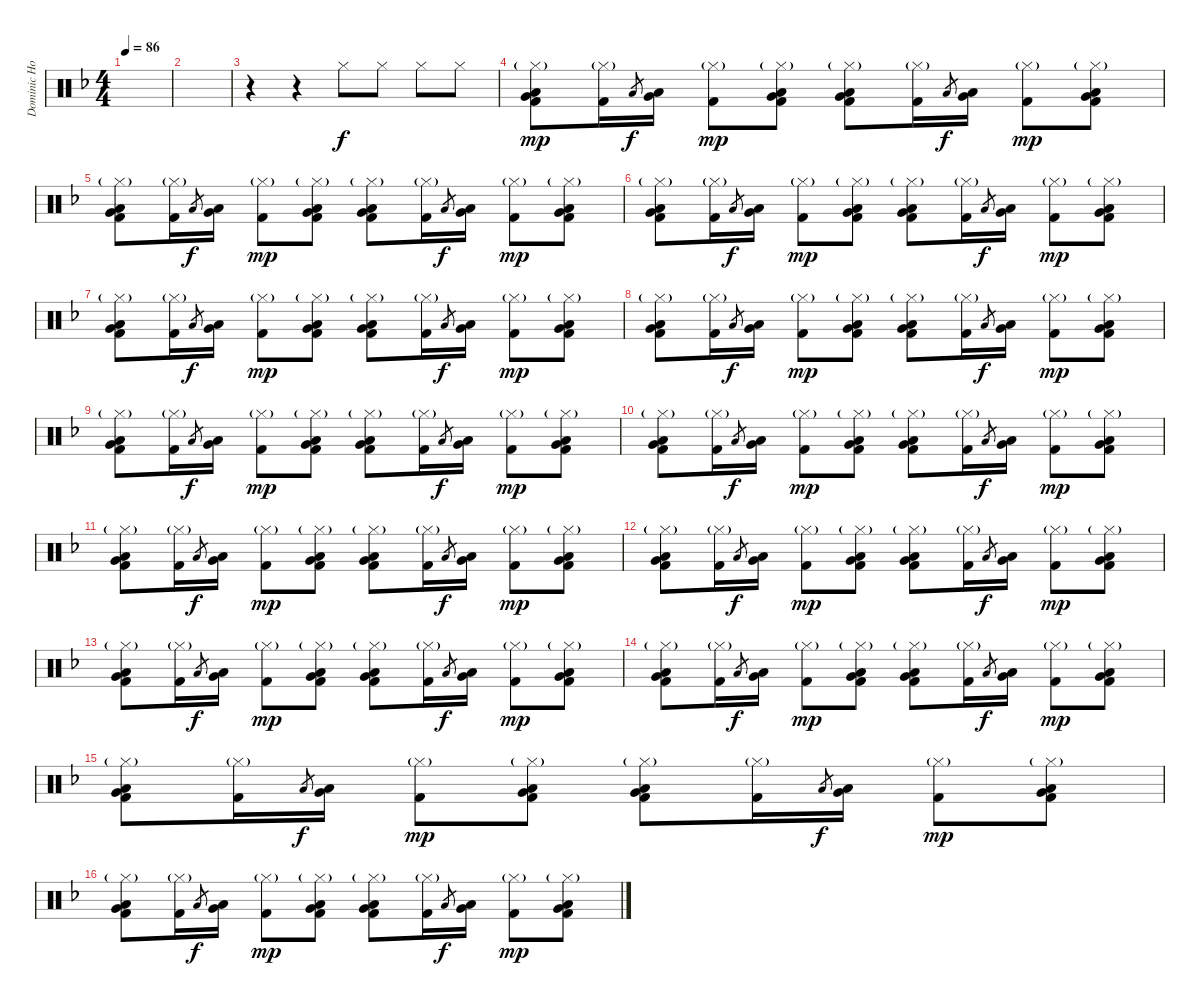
\track ("Dominic Howard" "Dominic Ho") {instrument percussion}
\staff {score}
\articulation defaults
\ts (4 4)
\tempo 86
\clef neutral
\ks f
|
|
r.4 r.4 "Hi-Hat (closed)".8 "Hi-Hat (closed)".8 "Hi-Hat (closed)".8 "Hi-Hat (closed)".8 |
("Hi-Hat (closed)"{g} "Very Low Tom (hit)" "Low Floor Tom (hit)" "Kick (hit) 2").8{dy mp} ("Hi-Hat (closed)"{g} "Kick (hit) 2").16 "Low Floor Tom (hit)".8{gr dy f} ("Very Low Tom (hit)" "Low Floor Tom (hit)").16 ("Hi-Hat (closed)"{g} "Kick (hit) 2").8{dy mp} ("Hi-Hat (closed)"{g} "Very Low Tom (hit)" "Low Floor Tom (hit)" "Kick (hit) 2").8 ("Hi-Hat (closed)"{g} "Very Low Tom (hit)" "Low Floor Tom (hit)" "Kick (hit) 2").8 ("Hi-Hat (closed)"{g} "Kick (hit) 2").16 "Low Floor Tom (hit)".8{gr dy f} ("Very Low Tom (hit)" "Low Floor Tom (hit)").16 ("Hi-Hat (closed)"{g} "Kick (hit) 2").8{dy mp} ("Hi-Hat (closed)"{g} "Very Low Tom (hit)" "Low Floor Tom (hit)" "Kick (hit) 2").8 |
("Hi-Hat (closed)"{g} "Very Low Tom (hit)" "Low Floor Tom (hit)" "Kick (hit) 2").8 ("Hi-Hat (closed)"{g} "Kick (hit) 2").16 "Low Floor Tom (hit)".8{gr dy f} ("Very Low Tom (hit)" "Low Floor Tom (hit)").16 ("Hi-Hat (closed)"{g} "Kick (hit) 2").8{dy mp} ("Hi-Hat (closed)"{g} "Very Low Tom (hit)" "Low Floor Tom (hit)" "Kick (hit) 2").8 ("Hi-Hat (closed)"{g} "Very Low Tom (hit)" "Low Floor Tom (hit)" "Kick (hit) 2").8 ("Hi-Hat (closed)"{g} "Kick (hit) 2").16 "Low Floor Tom (hit)".8{gr dy f} ("Very Low Tom (hit)" "Low Floor Tom (hit)").16 ("Hi-Hat (closed)"{g} "Kick (hit) 2").8{dy mp} ("Hi-Hat (closed)"{g} "Very Low Tom (hit)" "Low Floor Tom (hit)" "Kick (hit) 2").8 |
("Hi-Hat (closed)"{g} "Very Low Tom (hit)" "Low Floor Tom (hit)" "Kick (hit) 2").8 ("Hi-Hat (closed)"{g} "Kick (hit) 2").16 "Low Floor Tom (hit)".8{gr dy f} ("Very Low Tom (hit)" "Low Floor Tom (hit)").16 ("Hi-Hat (closed)"{g} "Kick (hit) 2").8{dy mp} ("Hi-Hat (closed)"{g} "Very Low Tom (hit)" "Low Floor Tom (hit)" "Kick (hit) 2").8 ("Hi-Hat (closed)"{g} "Very Low Tom (hit)" "Low Floor Tom (hit)" "Kick (hit) 2").8 ("Hi-Hat (closed)"{g} "Kick (hit) 2").16 "Low Floor Tom (hit)".8{gr dy f} ("Very Low Tom (hit)" "Low Floor Tom (hit)").16 ("Hi-Hat (closed)"{g} "Kick (hit) 2").8{dy mp} ("Hi-Hat (closed)"{g} "Very Low Tom (hit)" "Low Floor Tom (hit)" "Kick (hit) 2").8 |
("Hi-Hat (closed)"{g} "Very Low Tom (hit)" "Low Floor Tom (hit)" "Kick (hit) 2").8 ("Hi-Hat (closed)"{g} "Kick (hit) 2").16 "Low Floor Tom (hit)".8{gr dy f} ("Very Low Tom (hit)" "Low Floor Tom (hit)").16 ("Hi-Hat (closed)"{g} "Kick (hit) 2").8{dy mp} ("Hi-Hat (closed)"{g} "Very Low Tom (hit)" "Low Floor Tom (hit)" "Kick (hit) 2").8 ("Hi-Hat (closed)"{g} "Very Low Tom (hit)" "Low Floor Tom (hit)" "Kick (hit) 2").8 ("Hi-Hat (closed)"{g} "Kick (hit) 2").16 "Low Floor Tom (hit)".8{gr dy f} ("Very Low Tom (hit)" "Low Floor Tom (hit)").16 ("Hi-Hat (closed)"{g} "Kick (hit) 2").8{dy mp} ("Hi-Hat (closed)"{g} "Very Low Tom (hit)" "Low Floor Tom (hit)" "Kick (hit) 2").8 |
("Hi-Hat (closed)"{g} "Very Low Tom (hit)" "Low Floor Tom (hit)" "Kick (hit) 2").8 ("Hi-Hat (closed)"{g} "Kick (hit) 2").16 "Low Floor Tom (hit)".8{gr dy f} ("Very Low Tom (hit)" "Low Floor Tom (hit)").16 ("Hi-Hat (closed)"{g} "Kick (hit) 2").8{dy mp} ("Hi-Hat (closed)"{g} "Very Low Tom (hit)" "Low Floor Tom (hit)" "Kick (hit) 2").8 ("Hi-Hat (closed)"{g} "Very Low Tom (hit)" "Low Floor Tom (hit)" "Kick (hit) 2").8 ("Hi-Hat (closed)"{g} "Kick (hit) 2").16 "Low Floor Tom (hit)".8{gr dy f} ("Very Low Tom (hit)" "Low Floor Tom (hit)").16 ("Hi-Hat (closed)"{g} "Kick (hit) 2").8{dy mp} ("Hi-Hat (closed)"{g} "Very Low Tom (hit)" "Low Floor Tom (hit)" "Kick (hit) 2").8 |
("Hi-Hat (closed)"{g} "Very Low Tom (hit)" "Low Floor Tom (hit)" "Kick (hit) 2").8 ("Hi-Hat (closed)"{g} "Kick (hit) 2").16 "Low Floor Tom (hit)".8{gr dy f} ("Very Low Tom (hit)" "Low Floor Tom (hit)").16 ("Hi-Hat (closed)"{g} "Kick (hit) 2").8{dy mp} ("Hi-Hat (closed)"{g} "Very Low Tom (hit)" "Low Floor Tom (hit)" "Kick (hit) 2").8 ("Hi-Hat (closed)"{g} "Very Low Tom (hit)" "Low Floor Tom (hit)" "Kick (hit) 2").8 ("Hi-Hat (closed)"{g} "Kick (hit) 2").16 "Low Floor Tom (hit)".8{gr dy f} ("Very Low Tom (hit)" "Low Floor Tom (hit)").16 ("Hi-Hat (closed)"{g} "Kick (hit) 2").8{dy mp} ("Hi-Hat (closed)"{g} "Very Low Tom (hit)" "Low Floor Tom (hit)" "Kick (hit) 2").8 |
("Hi-Hat (closed)"{g} "Very Low Tom (hit)" "Low Floor Tom (hit)" "Kick (hit) 2").8 ("Hi-Hat (closed)"{g} "Kick (hit) 2").16 "Low Floor Tom (hit)".8{gr dy f} ("Very Low Tom (hit)" "Low Floor Tom (hit)").16 ("Hi-Hat (closed)"{g} "Kick (hit) 2").8{dy mp} ("Hi-Hat (closed)"{g} "Very Low Tom (hit)" "Low Floor Tom (hit)" "Kick (hit) 2").8 ("Hi-Hat (closed)"{g} "Very Low Tom (hit)" "Low Floor Tom (hit)" "Kick (hit) 2").8 ("Hi-Hat (closed)"{g} "Kick (hit) 2").16 "Low Floor Tom (hit)".8{gr dy f} ("Very Low Tom (hit)" "Low Floor Tom (hit)").16 ("Hi-Hat (closed)"{g} "Kick (hit) 2").8{dy mp} ("Hi-Hat (closed)"{g} "Very Low Tom (hit)" "Low Floor Tom (hit)" "Kick (hit) 2").8 |
("Hi-Hat (closed)"{g} "Very Low Tom (hit)" "Low Floor Tom (hit)" "Kick (hit) 2").8 ("Hi-Hat (closed)"{g} "Kick (hit) 2").16 "Low Floor Tom (hit)".8{gr dy f} ("Very Low Tom (hit)" "Low Floor Tom (hit)").16 ("Hi-Hat (closed)"{g} "Kick (hit) 2").8{dy mp} ("Hi-Hat (closed)"{g} "Very Low Tom (hit)" "Low Floor Tom (hit)" "Kick (hit) 2").8 ("Hi-Hat (closed)"{g} "Very Low Tom (hit)" "Low Floor Tom (hit)" "Kick (hit) 2").8 ("Hi-Hat (closed)"{g} "Kick (hit) 2").16 "Low Floor Tom (hit)".8{gr dy f} ("Very Low Tom (hit)" "Low Floor Tom (hit)").16 ("Hi-Hat (closed)"{g} "Kick (hit) 2").8{dy mp} ("Hi-Hat (closed)"{g} "Very Low Tom (hit)" "Low Floor Tom (hit)" "Kick (hit) 2").8 |
("Hi-Hat (closed)"{g} "Very Low Tom (hit)" "Low Floor Tom (hit)" "Kick (hit) 2").8 ("Hi-Hat (closed)"{g} "Kick (hit) 2").16 "Low Floor Tom (hit)".8{gr dy f} ("Very Low Tom (hit)" "Low Floor Tom (hit)").16 ("Hi-Hat (closed)"{g} "Kick (hit) 2").8{dy mp} ("Hi-Hat (closed)"{g} "Very Low Tom (hit)" "Low Floor Tom (hit)" "Kick (hit) 2").8 ("Hi-Hat (closed)"{g} "Very Low Tom (hit)" "Low Floor Tom (hit)" "Kick (hit) 2").8 ("Hi-Hat (closed)"{g} "Kick (hit) 2").16 "Low Floor Tom (hit)".8{gr dy f} ("Very Low Tom (hit)" "Low Floor Tom (hit)").16 ("Hi-Hat (closed)"{g} "Kick (hit) 2").8{dy mp} ("Hi-Hat (closed)"{g} "Very Low Tom (hit)" "Low Floor Tom (hit)" "Kick (hit) 2").8 |
("Hi-Hat (closed)"{g} "Very Low Tom (hit)" "Low Floor Tom (hit)" "Kick (hit) 2").8 ("Hi-Hat (closed)"{g} "Kick (hit) 2").16 "Low Floor Tom (hit)".8{gr dy f} ("Very Low Tom (hit)" "Low Floor Tom (hit)").16 ("Hi-Hat (closed)"{g} "Kick (hit) 2").8{dy mp} ("Hi-Hat (closed)"{g} "Very Low Tom (hit)" "Low Floor Tom (hit)" "Kick (hit) 2").8 ("Hi-Hat (closed)"{g} "Very Low Tom (hit)" "Low Floor Tom (hit)" "Kick (hit) 2").8 ("Hi-Hat (closed)"{g} "Kick (hit) 2").16 "Low Floor Tom (hit)".8{gr dy f} ("Very Low Tom (hit)" "Low Floor Tom (hit)").16 ("Hi-Hat (closed)"{g} "Kick (hit) 2").8{dy mp} ("Hi-Hat (closed)"{g} "Very Low Tom (hit)" "Low Floor Tom (hit)" "Kick (hit) 2").8 |
("Hi-Hat (closed)"{g} "Very Low Tom (hit)" "Low Floor Tom (hit)" "Kick (hit) 2").8 ("Hi-Hat (closed)"{g} "Kick (hit) 2").16 "Low Floor Tom (hit)".8{gr dy f} ("Very Low Tom (hit)" "Low Floor Tom (hit)").16 ("Hi-Hat (closed)"{g} "Kick (hit) 2").8{dy mp} ("Hi-Hat (closed)"{g} "Very Low Tom (hit)" "Low Floor Tom (hit)" "Kick (hit) 2").8 ("Hi-Hat (closed)"{g} "Very Low Tom (hit)" "Low Floor Tom (hit)" "Kick (hit) 2").8 ("Hi-Hat (closed)"{g} "Kick (hit) 2").16 "Low Floor Tom (hit)".8{gr dy f} ("Very Low Tom (hit)" "Low Floor Tom (hit)").16 ("Hi-Hat (closed)"{g} "Kick (hit) 2").8{dy mp} ("Hi-Hat (closed)"{g} "Very Low Tom (hit)" "Low Floor Tom (hit)" "Kick (hit) 2").8 |
("Hi-Hat (closed)"{g} "Very Low Tom (hit)" "Low Floor Tom (hit)" "Kick (hit) 2").8 ("Hi-Hat (closed)"{g} "Kick (hit) 2").16 "Low Floor Tom (hit)".8{gr dy f} ("Very Low Tom (hit)" "Low Floor Tom (hit)").16 ("Hi-Hat (closed)"{g} "Kick (hit) 2").8{dy mp} ("Hi-Hat (closed)"{g} "Very Low Tom (hit)" "Low Floor Tom (hit)" "Kick (hit) 2").8 ("Hi-Hat (closed)"{g} "Very Low Tom (hit)" "Low Floor Tom (hit)" "Kick (hit) 2").8 ("Hi-Hat (closed)"{g} "Kick (hit) 2").16 "Low Floor Tom (hit)".8{gr dy f} ("Very Low Tom (hit)" "Low Floor Tom (hit)").16 ("Hi-Hat (closed)"{g} "Kick (hit) 2").8{dy mp} ("Hi-Hat (closed)"{g} "Very Low Tom (hit)" "Low Floor Tom (hit)" "Kick (hit) 2").8 |
("Hi-Hat (closed)"{g} "Very Low Tom (hit)" "Low Floor Tom (hit)" "Kick (hit) 2").8 ("Hi-Hat (closed)"{g} "Kick (hit) 2").16 "Low Floor Tom (hit)".8{gr dy f} ("Very Low Tom (hit)" "Low Floor Tom (hit)").16 ("Hi-Hat (closed)"{g} "Kick (hit) 2").8{dy mp} ("Hi-Hat (closed)"{g} "Very Low Tom (hit)" "Low Floor Tom (hit)" "Kick (hit) 2").8 ("Hi-Hat (closed)"{g} "Very Low Tom (hit)" "Low Floor Tom (hit)" "Kick (hit) 2").8 ("Hi-Hat (closed)"{g} "Kick (hit) 2").16 "Low Floor Tom (hit)".8{gr dy f} ("Very Low Tom (hit)" "Low Floor Tom (hit)").16 ("Hi-Hat (closed)"{g} "Kick (hit) 2").8{dy mp} ("Hi-Hat (closed)"{g} "Very Low Tom (hit)" "Low Floor Tom (hit)" "Kick (hit) 2").8
